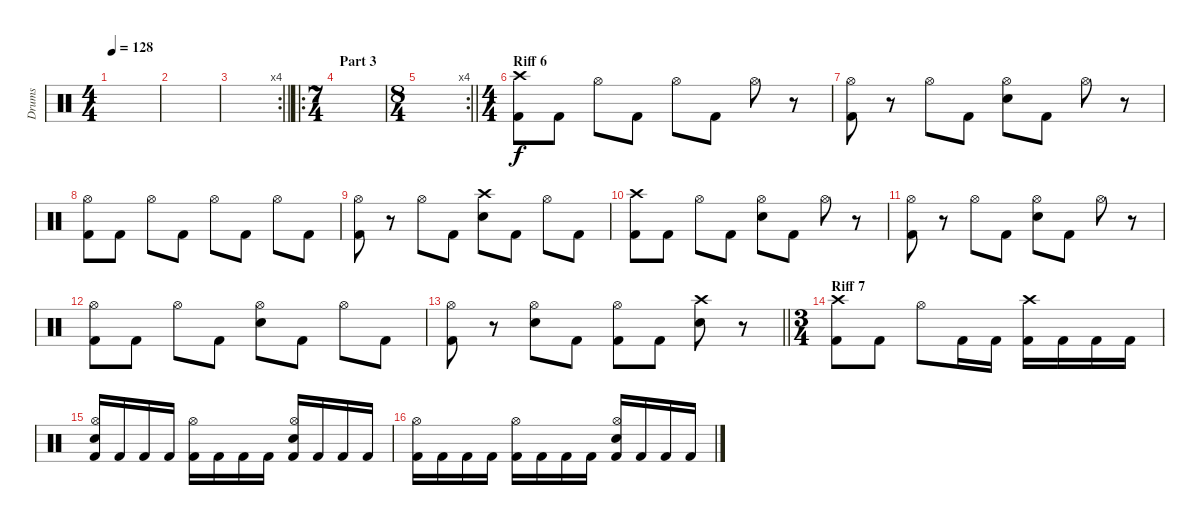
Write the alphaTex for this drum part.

\track ("Drums" "Drums") {instrument percussion}
\staff {score}
\articulation defaults
\ts (4 4)
\tempo 128
\clef neutral
\ks c
|
|
\rc 4
\barLineRight lightlight
|
\ro
\ts (7 4)
\section ("" "Part 3")
|
\rc 4
\ts (8 4)
\barLineRight lightlight
|
\ts (4 4)
\section ("" "Riff 6")
("Crash high (hit)" "Kick (hit) 2").8 "Kick (hit) 2".8 "Hi-Hat (open)".8 "Kick (hit) 2".8 "Hi-Hat (open)".8 "Kick (hit) 2".8 "Hi-Hat (open)".8 r.8 |
("Hi-Hat (open)" "Kick (hit) 2").8 r.8 "Hi-Hat (open)".8 "Kick (hit) 2".8 ("Hi-Hat (open)" "Electric Snare (hit)").8 "Kick (hit) 2".8 "Hi-Hat (open)".8 r.8 |
("Hi-Hat (open)" "Kick (hit) 2").8 "Kick (hit) 2".8 "Hi-Hat (open)".8 "Kick (hit) 2".8 "Hi-Hat (open)".8 "Kick (hit) 2".8 "Hi-Hat (open)".8 "Kick (hit) 2".8 |
("Hi-Hat (open)" "Kick (hit) 2").8 r.8 "Hi-Hat (open)".8 "Kick (hit) 2".8 ("Crash high (hit)" "Electric Snare (hit)").8 "Kick (hit) 2".8 "Hi-Hat (open)".8 "Kick (hit) 2".8 |
("Crash high (hit)" "Kick (hit) 2").8 "Kick (hit) 2".8 "Hi-Hat (open)".8 "Kick (hit) 2".8 ("Hi-Hat (open)" "Electric Snare (hit)").8 "Kick (hit) 2".8 "Hi-Hat (open)".8 r.8 |
("Hi-Hat (open)" "Kick (hit) 2").8 r.8 "Hi-Hat (open)".8 "Kick (hit) 2".8 ("Hi-Hat (open)" "Electric Snare (hit)").8 "Kick (hit) 2".8 "Hi-Hat (open)".8 r.8 |
("Hi-Hat (open)" "Kick (hit) 2").8 "Kick (hit) 2".8 "Hi-Hat (open)".8 "Kick (hit) 2".8 ("Hi-Hat (open)" "Electric Snare (hit)").8 "Kick (hit) 2".8 "Hi-Hat (open)".8 "Kick (hit) 2".8 |
\barLineRight lightlight
("Hi-Hat (open)" "Kick (hit) 2").8 r.8 ("Hi-Hat (open)" "Electric Snare (hit)").8 "Kick (hit) 2".8 ("Hi-Hat (open)" "Kick (hit) 2").8 "Kick (hit) 2".8 ("Crash high (hit)" "Electric Snare (hit)").8 r.8 |
\ts (3 4)
\section ("" "Riff 7")
("Crash high (hit)" "Kick (hit) 2").8 "Kick (hit) 2".8 "Hi-Hat (open)".8 "Kick (hit) 2".16 "Kick (hit) 2".16 ("Crash high (hit)" "Kick (hit) 2").16 "Kick (hit) 2".16 "Kick (hit) 2".16 "Kick (hit) 2".16 |
("Hi-Hat (open)" "Electric Snare (hit)" "Kick (hit) 2").16 "Kick (hit) 2".16 "Kick (hit) 2".16 "Kick (hit) 2".16 ("Hi-Hat (open)" "Kick (hit) 2").16 "Kick (hit) 2".16 "Kick (hit) 2".16 "Kick (hit) 2".16 ("Hi-Hat (open)" "Electric Snare (hit)" "Kick (hit) 2").16 "Kick (hit) 2".16 "Kick (hit) 2".16 "Kick (hit) 2".16 |
("Hi-Hat (open)" "Kick (hit) 2").16 "Kick (hit) 2".16 "Kick (hit) 2".16 "Kick (hit) 2".16 ("Hi-Hat (open)" "Kick (hit) 2").16 "Kick (hit) 2".16 "Kick (hit) 2".16 "Kick (hit) 2".16 ("Hi-Hat (open)" "Electric Snare (hit)" "Kick (hit) 2").16 "Kick (hit) 2".16 "Kick (hit) 2".16 "Kick (hit) 2".16
